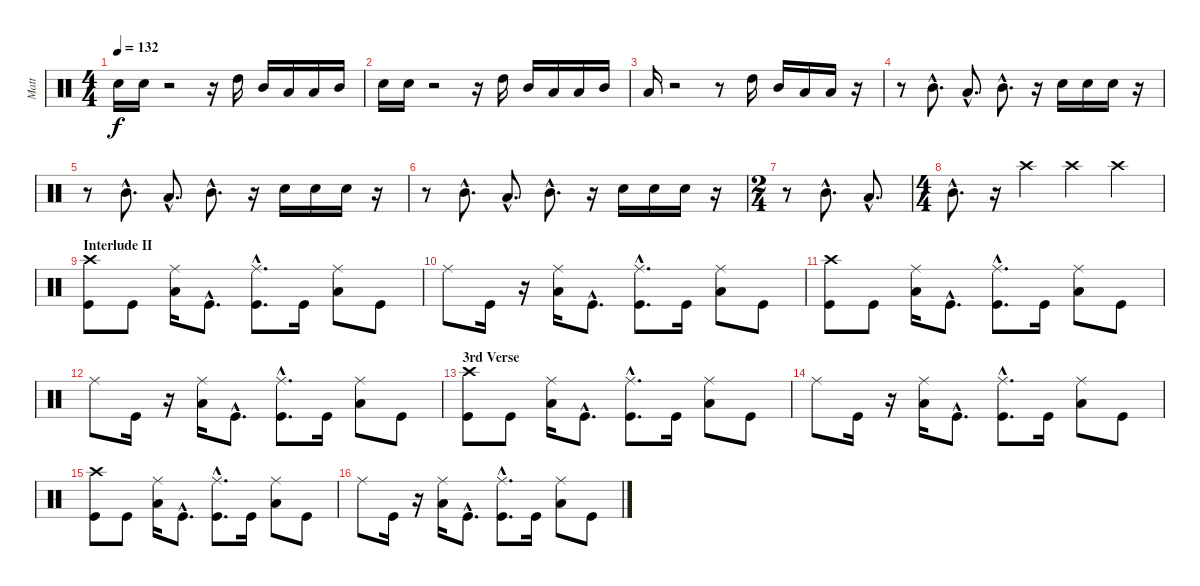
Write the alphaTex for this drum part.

\track ("Matt" "Matt") {instrument percussion}
\staff {score}
\articulation defaults
\ts (4 4)
\tempo 132
\clef neutral
\ks c "Electric Snare (hit)".16{dy f} "Electric Snare (hit)".16
r.2 r.16 "High Tom (hit)".16 "Mid Tom (hit)".16 "Low Tom (hit)".16 "Low Tom (hit)".16 "Mid Tom (hit)".16 |
"Electric Snare (hit)".16 "Electric Snare (hit)".16 r.2 r.16 "High Tom (hit)".16 "Mid Tom (hit)".16 "Low Tom (hit)".16 "Low Tom (hit)".16 "Mid Tom (hit)".16 |
"Low Tom (hit)".16 r.2 r.8 "High Tom (hit)".16 "Mid Tom (hit)".16 "Low Tom (hit)".16 "Low Tom (hit)".16 r.16 |
r.8 "Mid Tom (hit)"{hac}.8{d} "Low Tom (hit)"{hac}.8{d} "Mid Tom (hit)"{hac}.8{d} r.16 "Electric Snare (hit)".16 "Electric Snare (hit)".16 "Electric Snare (hit)".16 r.16 |
r.8 "Mid Tom (hit)"{hac}.8{d} "Low Tom (hit)"{hac}.8{d} "Mid Tom (hit)"{hac}.8{d} r.16 "Electric Snare (hit)".16 "Electric Snare (hit)".16 "Electric Snare (hit)".16 r.16 |
r.8 "Mid Tom (hit)"{hac}.8{d} "Low Tom (hit)"{hac}.8{d} "Mid Tom (hit)"{hac}.8{d} r.16 "Electric Snare (hit)".16 "Electric Snare (hit)".16 "Electric Snare (hit)".16 r.16 |
\ts (2 4)
r.8 "Mid Tom (hit)"{hac}.8{d} "Low Tom (hit)"{hac}.8{d} |
\ts (4 4)
"Mid Tom (hit)"{hac}.8{d} r.16 "Crash high (hit)".4 "Crash high (hit)".4 "Crash high (hit)".4 |
\section ("" "Interlude II")
("Crash high (hit)" "Kick (hit)").8 "Kick (hit)".8 ("Ride (middle)" "Low Tom (hit)").16 "Kick (hit)"{hac}.8{d} ("Kick (hit)"{hac} "Ride (middle)").8{d} "Kick (hit)".16 ("Ride (middle)" "Low Tom (hit)").8 "Kick (hit)".8 |
"Ride (middle)".8 "Kick (hit)".16 r.16 ("Low Tom (hit)" "Ride (middle)").16 "Kick (hit)"{hac}.8{d} ("Kick (hit)"{hac} "Ride (middle)").8{d} "Kick (hit)".16 ("Ride (middle)" "Low Tom (hit)").8 "Kick (hit)".8 |
("Kick (hit)" "Crash high (hit)").8 "Kick (hit)".8 ("Low Tom (hit)" "Ride (middle)").16 "Kick (hit)"{hac}.8{d} ("Ride (middle)" "Kick (hit)"{hac}).8{d} "Kick (hit)".16 ("Low Tom (hit)" "Ride (middle)").8 "Kick (hit)".8 |
"Ride (middle)".8 "Kick (hit)".16 r.16 ("Low Tom (hit)" "Ride (middle)").16 "Kick (hit)"{hac}.8{d} ("Kick (hit)"{hac} "Ride (middle)").8{d} "Kick (hit)".16 ("Ride (middle)" "Low Tom (hit)").8 "Kick (hit)".8 |
\section ("" "3rd Verse")
("Kick (hit)" "Crash high (hit)").8 "Kick (hit)".8 ("Ride (middle)" "Low Tom (hit)").16 "Kick (hit)"{hac}.8{d} ("Ride (middle)" "Kick (hit)"{hac}).8{d} "Kick (hit)".16 ("Ride (middle)" "Low Tom (hit)").8 "Kick (hit)".8 |
"Ride (middle)".8 "Kick (hit)".16 r.16 ("Ride (middle)" "Low Tom (hit)").16 "Kick (hit)"{hac}.8{d} ("Ride (middle)" "Kick (hit)"{hac}).8{d} "Kick (hit)".16 ("Ride (middle)" "Low Tom (hit)").8 "Kick (hit)".8 |
("Crash high (hit)" "Kick (hit)").8 "Kick (hit)".8 ("Ride (middle)" "Low Tom (hit)").16 "Kick (hit)"{hac}.8{d} ("Ride (middle)" "Kick (hit)"{hac}).8{d} "Kick (hit)".16 ("Ride (middle)" "Low Tom (hit)").8 "Kick (hit)".8 |
"Ride (middle)".8 "Kick (hit)".16 r.16 ("Ride (middle)" "Low Tom (hit)").16 "Kick (hit)"{hac}.8{d} ("Kick (hit)"{hac} "Ride (middle)").8{d} "Kick (hit)".16 ("Ride (middle)" "Low Tom (hit)").8 "Kick (hit)".8
